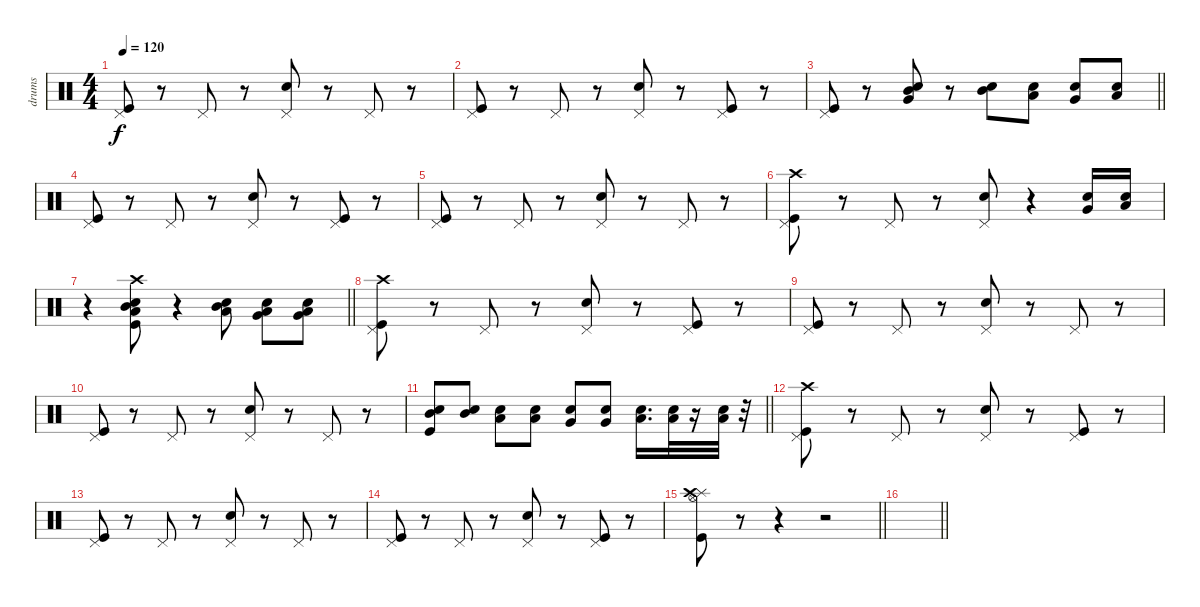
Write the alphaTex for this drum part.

\track ("drums" "drums") {instrument percussion}
\staff {score}
\articulation defaults
\ts (4 4)
\tempo 120
\clef neutral
\ks c
("Kick (hit)" "Pedal Hi-Hat (hit)").8{dy f} r.8 "Pedal Hi-Hat (hit)".8 r.8 ("Snare (hit) 2" "Pedal Hi-Hat (hit)").8 r.8 "Pedal Hi-Hat (hit)".8 r.8 |
("Kick (hit)" "Pedal Hi-Hat (hit)").8 r.8 "Pedal Hi-Hat (hit)".8 r.8 ("Snare (hit) 2" "Pedal Hi-Hat (hit)").8 r.8 ("Kick (hit)" "Pedal Hi-Hat (hit)").8 r.8 |
\barLineRight lightlight
("Kick (hit)" "Pedal Hi-Hat (hit)").8 r.8 ("Snare (hit) 2" "Mid Tom (hit)" "Very Low Tom (hit)").8 r.8 ("Snare (hit) 2" "Mid Tom (hit)").8 ("Low Tom (hit)" "Snare (hit) 2").8 ("Snare (hit) 2" "Very Low Tom (hit)").8 ("Snare (hit) 2" "Low Floor Tom (hit)").8 |
("Kick (hit)" "Pedal Hi-Hat (hit)").8 r.8 "Pedal Hi-Hat (hit)".8 r.8 ("Snare (hit) 2" "Pedal Hi-Hat (hit)").8 r.8 ("Kick (hit)" "Pedal Hi-Hat (hit)").8 r.8 |
("Kick (hit)" "Pedal Hi-Hat (hit)").8 r.8 "Pedal Hi-Hat (hit)".8 r.8 ("Snare (hit) 2" "Pedal Hi-Hat (hit)").8 r.8 "Pedal Hi-Hat (hit)".8 r.8 |
("Kick (hit)" "Crash high (hit)" "Pedal Hi-Hat (hit)").8 r.8 "Pedal Hi-Hat (hit)".8 r.8 ("Snare (hit) 2" "Pedal Hi-Hat (hit)").8 r.4 ("Snare (hit) 2" "Very Low Tom (hit)").16 ("Snare (hit) 2" "Low Floor Tom (hit)").16 |
\barLineRight lightlight
r.4 ("Snare (hit) 2" "Kick (hit)" "Crash high (hit)" "Mid Tom (hit)" "Low Tom (hit)").8 r.4 ("Snare (hit) 2" "Mid Tom (hit)" "Low Tom (hit)").8 ("Snare (hit) 2" "Low Tom (hit)" "Very Low Tom (hit)").8 ("Snare (hit) 2" "Low Floor Tom (hit)" "Very Low Tom (hit)").8 |
("Kick (hit)" "Crash high (hit)" "Pedal Hi-Hat (hit)").8 r.8 "Pedal Hi-Hat (hit)".8 r.8 ("Snare (hit) 2" "Pedal Hi-Hat (hit)").8 r.8 ("Kick (hit)" "Pedal Hi-Hat (hit)").8 r.8 |
("Kick (hit)" "Pedal Hi-Hat (hit)").8 r.8 "Pedal Hi-Hat (hit)".8 r.8 ("Snare (hit) 2" "Pedal Hi-Hat (hit)").8 r.8 "Pedal Hi-Hat (hit)".8 r.8 |
("Kick (hit)" "Pedal Hi-Hat (hit)").8 r.8 "Pedal Hi-Hat (hit)".8 r.8 ("Snare (hit) 2" "Pedal Hi-Hat (hit)").8 r.8 "Pedal Hi-Hat (hit)".8 r.8 |
\barLineRight lightlight
("Kick (hit)" "Snare (hit) 2" "Mid Tom (hit)").8 ("Snare (hit) 2" "Mid Tom (hit)").8 ("Snare (hit) 2" "Low Tom (hit)").8 ("Snare (hit) 2" "Low Tom (hit)").8 ("Snare (hit) 2" "Very Low Tom (hit)").8 ("Snare (hit) 2" "Very Low Tom (hit)").8 ("Low Floor Tom (hit)" "Snare (hit) 2").16{d} ("Snare (hit) 2" "Low Floor Tom (hit)").32 r.16 ("Snare (hit) 2" "Low Floor Tom (hit)").32 r.32 |
("Kick (hit)" "Crash high (hit)" "Pedal Hi-Hat (hit)").8 r.8 "Pedal Hi-Hat (hit)".8 r.8 ("Snare (hit) 2" "Pedal Hi-Hat (hit)").8 r.8 ("Kick (hit)" "Pedal Hi-Hat (hit)").8 r.8 |
("Kick (hit)" "Pedal Hi-Hat (hit)").8 r.8 "Pedal Hi-Hat (hit)".8 r.8 ("Snare (hit) 2" "Pedal Hi-Hat (hit)").8 r.8 "Pedal Hi-Hat (hit)".8 r.8 |
("Kick (hit)" "Pedal Hi-Hat (hit)").8 r.8 "Pedal Hi-Hat (hit)".8 r.8 ("Snare (hit) 2" "Pedal Hi-Hat (hit)").8 r.8 ("Kick (hit)" "Pedal Hi-Hat (hit)").8 r.8 |
\barLineRight lightlight
("Kick (hit)" "Splash (hit)" "Hi-Hat (open)" "Crash high (hit)").8 r.8 r.4 r.2 |
\barLineRight lightlight
